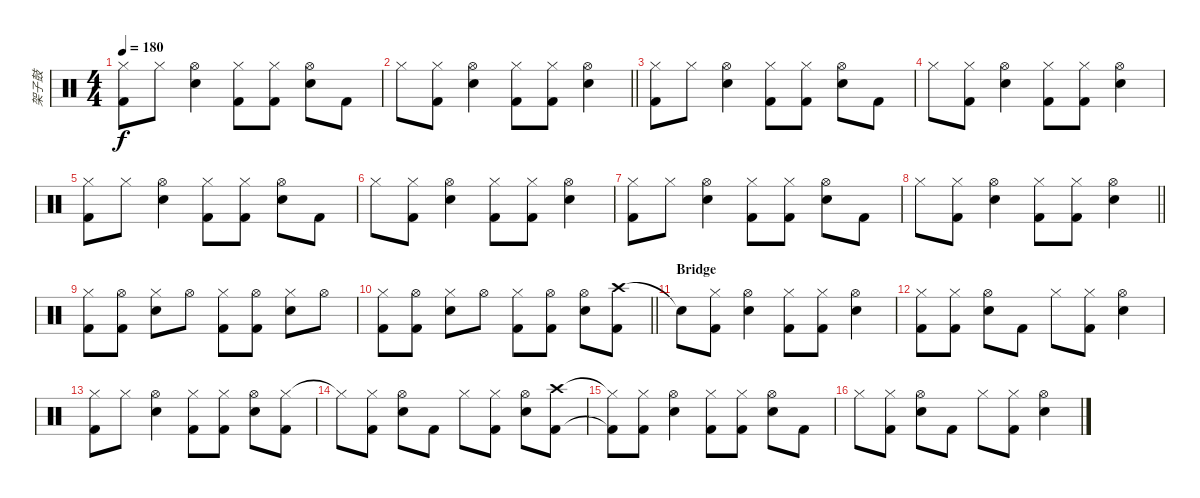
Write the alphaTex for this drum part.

\track ("架子鼓" "架子鼓") {instrument percussion}
\staff {score}
\articulation defaults
\ts (4 4)
\tempo 180
\clef neutral
\ks c
("Hi-Hat (closed)" "Kick (hit) 2").8{dy f} "Hi-Hat (closed)".8 ("Hi-Hat (open)" "Snare (hit) 2").4 ("Hi-Hat (closed)" "Kick (hit) 2").8 ("Hi-Hat (closed)" "Kick (hit) 2").8 ("Hi-Hat (open)" "Snare (hit) 2").8 "Kick (hit) 2".8 |
\barLineRight lightlight "Hi-Hat (closed)".8
("Hi-Hat (closed)" "Kick (hit) 2").8 ("Hi-Hat (open)" "Snare (hit) 2").4 ("Hi-Hat (closed)" "Kick (hit) 2").8 ("Hi-Hat (closed)" "Kick (hit) 2").8 ("Hi-Hat (open)" "Snare (hit) 2").4 |
("Hi-Hat (closed)" "Kick (hit) 2").8 "Hi-Hat (closed)".8 ("Hi-Hat (open)" "Snare (hit) 2").4 ("Hi-Hat (closed)" "Kick (hit) 2").8 ("Hi-Hat (closed)" "Kick (hit) 2").8 ("Hi-Hat (open)" "Snare (hit) 2").8 "Kick (hit) 2".8 |
"Hi-Hat (closed)".8 ("Hi-Hat (closed)" "Kick (hit) 2").8 ("Hi-Hat (open)" "Snare (hit) 2").4 ("Hi-Hat (closed)" "Kick (hit) 2").8 ("Hi-Hat (closed)" "Kick (hit) 2").8 ("Hi-Hat (open)" "Snare (hit) 2").4 |
("Hi-Hat (closed)" "Kick (hit) 2").8 "Hi-Hat (closed)".8 ("Hi-Hat (open)" "Snare (hit) 2").4 ("Hi-Hat (closed)" "Kick (hit) 2").8 ("Hi-Hat (closed)" "Kick (hit) 2").8 ("Hi-Hat (open)" "Snare (hit) 2").8 "Kick (hit) 2".8 |
"Hi-Hat (closed)".8 ("Hi-Hat (closed)" "Kick (hit) 2").8 ("Hi-Hat (open)" "Snare (hit) 2").4 ("Hi-Hat (closed)" "Kick (hit) 2").8 ("Hi-Hat (closed)" "Kick (hit) 2").8 ("Hi-Hat (open)" "Snare (hit) 2").4 |
("Hi-Hat (closed)" "Kick (hit) 2").8 "Hi-Hat (closed)".8 ("Hi-Hat (open)" "Snare (hit) 2").4 ("Hi-Hat (closed)" "Kick (hit) 2").8 ("Hi-Hat (closed)" "Kick (hit) 2").8 ("Hi-Hat (open)" "Snare (hit) 2").8 "Kick (hit) 2".8 |
\barLineRight lightlight "Hi-Hat (closed)".8
("Hi-Hat (closed)" "Kick (hit) 2").8 ("Hi-Hat (open)" "Snare (hit) 2").4 ("Hi-Hat (closed)" "Kick (hit) 2").8 ("Hi-Hat (closed)" "Kick (hit) 2").8 ("Hi-Hat (open)" "Snare (hit) 2").4 |
("Hi-Hat (closed)" "Kick (hit) 2").8 ("Hi-Hat (open)" "Kick (hit) 2").8 ("Hi-Hat (closed)" "Snare (hit) 2").8 "Hi-Hat (open)".8 ("Hi-Hat (closed)" "Kick (hit) 2").8 ("Hi-Hat (open)" "Kick (hit) 2").8 ("Hi-Hat (closed)" "Snare (hit) 2").8 "Hi-Hat (open)".8 |
\barLineRight lightlight
("Hi-Hat (closed)" "Kick (hit) 2").8 ("Hi-Hat (open)" "Kick (hit) 2").8 ("Hi-Hat (closed)" "Snare (hit) 2").8 "Hi-Hat (open)".8 ("Hi-Hat (closed)" "Kick (hit) 2").8 ("Hi-Hat (open)" "Kick (hit) 2").8 ("Hi-Hat (open)" "Snare (hit) 2").8 ("Crash high (hit)" "Kick (hit) 2").8 |
\section ("" "Bridge")
"Snare (hit)"{t}.8 ("Hi-Hat (closed)" "Kick (hit) 2").8 ("Hi-Hat (open)" "Snare (hit) 2").4 ("Hi-Hat (closed)" "Kick (hit) 2").8 ("Hi-Hat (closed)" "Kick (hit) 2").8 ("Hi-Hat (open)" "Snare (hit) 2").4 |
("Hi-Hat (closed)" "Kick (hit) 2").8 ("Hi-Hat (closed)" "Kick (hit) 2").8 ("Hi-Hat (open)" "Snare (hit) 2").8 "Kick (hit) 2".8 "Hi-Hat (closed)".8 ("Hi-Hat (closed)" "Kick (hit) 2").8 ("Hi-Hat (open)" "Snare (hit) 2").4 |
("Hi-Hat (closed)" "Kick (hit) 2").8 "Hi-Hat (closed)".8 ("Hi-Hat (open)" "Snare (hit) 2").4 ("Hi-Hat (closed)" "Kick (hit) 2").8 ("Hi-Hat (closed)" "Kick (hit) 2").8 ("Hi-Hat (open)" "Snare (hit) 2").8 ("Hi-Hat (closed)" "Kick (hit) 2").8 |
"Hi-Hat (closed)"{t}.8 ("Hi-Hat (closed)" "Kick (hit) 2").8 ("Hi-Hat (open)" "Snare (hit) 2").8 "Kick (hit) 2".8 "Hi-Hat (closed)".8 ("Hi-Hat (closed)" "Kick (hit) 2").8 ("Hi-Hat (open)" "Snare (hit) 2").8 ("Crash high (hit)" "Kick (hit) 2").8 |
("Hi-Hat (closed)"{t} "Kick (hit) 2"{t}).8 ("Hi-Hat (closed)" "Kick (hit) 2").8 ("Hi-Hat (open)" "Snare (hit) 2").4 ("Hi-Hat (closed)" "Kick (hit) 2").8 ("Hi-Hat (closed)" "Kick (hit) 2").8 ("Hi-Hat (open)" "Snare (hit) 2").8 "Kick (hit) 2".8 |
"Hi-Hat (closed)".8 ("Hi-Hat (closed)" "Kick (hit) 2").8 ("Hi-Hat (open)" "Snare (hit) 2").8 "Kick (hit) 2".8 "Hi-Hat (closed)".8 ("Hi-Hat (closed)" "Kick (hit) 2").8 ("Hi-Hat (open)" "Snare (hit) 2").4
